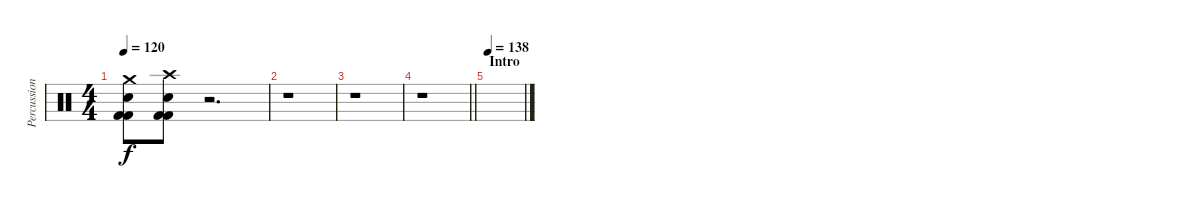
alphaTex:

\track ("Percussion" "Percussion") {instrument percussion}
\staff {score}
\articulation defaults
\ts (4 4)
\tempo 120
\clef neutral
\ks c
("Crash medium (hit)" "Snare (hit) 2" "Kick (hit) 2" "Kick (hit) 2").8{dy f} ("Crash high (hit)" "Snare (hit) 2" "Kick (hit) 2" "Kick (hit) 2").8 r.2{d} |
r.1 |
r.1 |
\barLineRight lightlight
r.1 |
\section ("" "Intro")
\tempo 138
